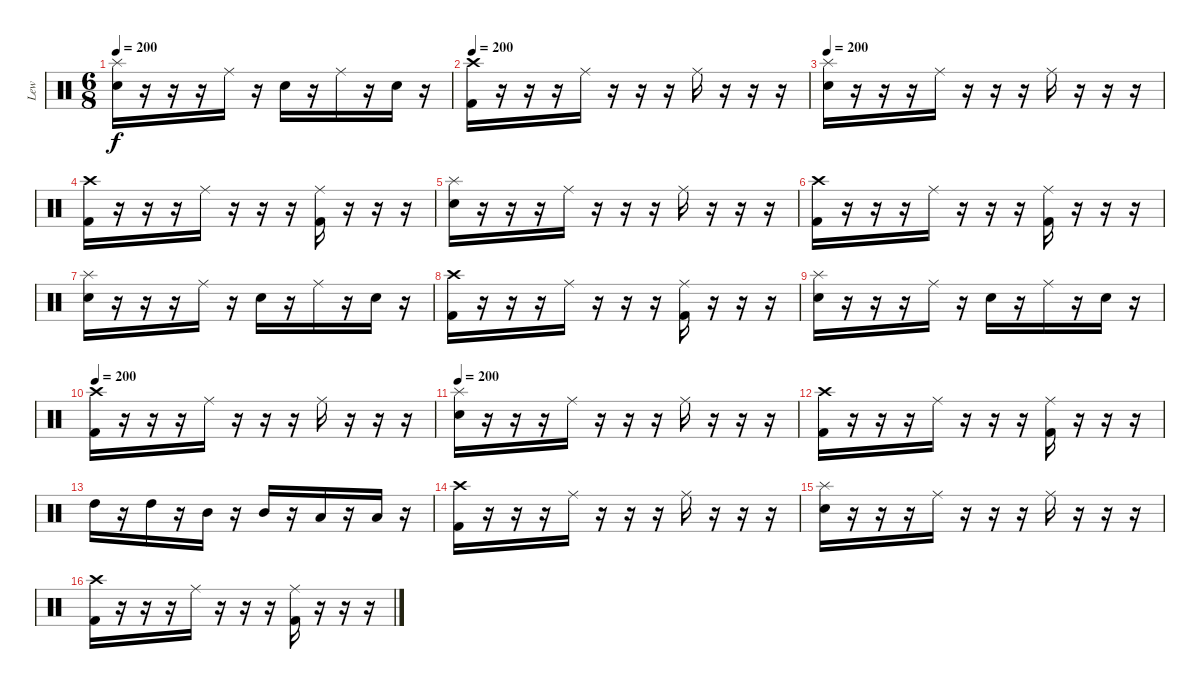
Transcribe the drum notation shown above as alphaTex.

\track ("Lew" "Lew") {instrument percussion}
\staff {score}
\articulation defaults
\ts (6 8)
\tempo 200
\clef neutral
\ks c
("Splash (hit)" "Electric Snare (hit)").16{dy f} r.16 r.16 r.16 "Ride (middle)".16 r.16 "Electric Snare (hit)".16 r.16 "Ride (middle)".16 r.16 "Electric Snare (hit)".16 r.16 |
\tempo 200
("Crash high (hit)" "Kick (hit) 2").16 r.16 r.16 r.16 "Ride (middle)".16 r.16 r.16 r.16 "Ride (middle)".16 r.16 r.16 r.16 |
\tempo 200
("Splash (hit)" "Electric Snare (hit)").16 r.16 r.16 r.16 "Ride (middle)".16 r.16 r.16 r.16 "Ride (middle)".16 r.16 r.16 r.16 |
("Crash high (hit)" "Kick (hit) 2").16 r.16 r.16 r.16 "Ride (middle)".16 r.16 r.16 r.16 ("Ride (middle)" "Kick (hit) 2").16 r.16 r.16 r.16 |
("Splash (hit)" "Electric Snare (hit)").16 r.16 r.16 r.16 "Ride (middle)".16 r.16 r.16 r.16 "Ride (middle)".16 r.16 r.16 r.16 |
("Crash high (hit)" "Kick (hit) 2").16 r.16 r.16 r.16 "Ride (middle)".16 r.16 r.16 r.16 ("Ride (middle)" "Kick (hit) 2").16 r.16 r.16 r.16 |
("Splash (hit)" "Electric Snare (hit)").16 r.16 r.16 r.16 "Ride (middle)".16 r.16 "Electric Snare (hit)".16 r.16 "Ride (middle)".16 r.16 "Electric Snare (hit)".16 r.16 |
("Crash high (hit)" "Kick (hit) 2").16 r.16 r.16 r.16 "Ride (middle)".16 r.16 r.16 r.16 ("Ride (middle)" "Kick (hit) 2").16 r.16 r.16 r.16 |
("Splash (hit)" "Electric Snare (hit)").16 r.16 r.16 r.16 "Ride (middle)".16 r.16 "Electric Snare (hit)".16 r.16 "Ride (middle)".16 r.16 "Electric Snare (hit)".16 r.16 |
\tempo 200
("Crash high (hit)" "Kick (hit) 2").16 r.16 r.16 r.16 "Ride (middle)".16 r.16 r.16 r.16 "Ride (middle)".16 r.16 r.16 r.16 |
\tempo 200
("Splash (hit)" "Electric Snare (hit)").16 r.16 r.16 r.16 "Ride (middle)".16 r.16 r.16 r.16 "Ride (middle)".16 r.16 r.16 r.16 |
("Crash high (hit)" "Kick (hit) 2").16 r.16 r.16 r.16 "Ride (middle)".16 r.16 r.16 r.16 ("Ride (middle)" "Kick (hit) 2").16 r.16 r.16 r.16 |
"High Tom (hit)".16 r.16 "High Tom (hit)".16 r.16 "Mid Tom (hit)".16 r.16 "Mid Tom (hit)".16 r.16 "Low Tom (hit)".16 r.16 "Low Tom (hit)".16 r.16 |
("Crash high (hit)" "Kick (hit) 2").16 r.16 r.16 r.16 "Ride (middle)".16 r.16 r.16 r.16 "Ride (middle)".16 r.16 r.16 r.16 |
("Splash (hit)" "Electric Snare (hit)").16 r.16 r.16 r.16 "Ride (middle)".16 r.16 r.16 r.16 "Ride (middle)".16 r.16 r.16 r.16 |
("Crash high (hit)" "Kick (hit) 2").16 r.16 r.16 r.16 "Ride (middle)".16 r.16 r.16 r.16 ("Ride (middle)" "Kick (hit) 2").16 r.16 r.16 r.16
